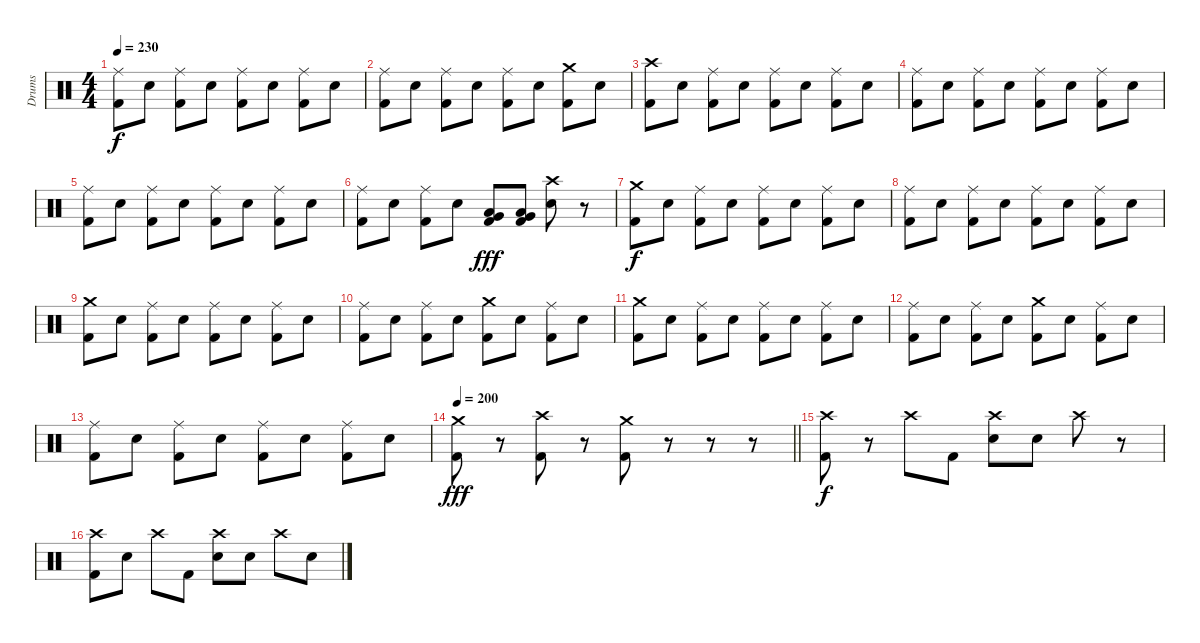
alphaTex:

\track ("Drums" "Drums") {instrument percussion}
\staff {score}
\articulation defaults
\ts (4 4)
\tempo 230
\clef neutral
\ks c
("Ride (middle)" "Kick (hit) 2").8{dy f} "Electric Snare (hit)".8 ("Ride (middle)" "Kick (hit) 2").8 "Electric Snare (hit)".8 ("Ride (middle)" "Kick (hit) 2").8 "Electric Snare (hit)".8 ("Ride (middle)" "Kick (hit) 2").8 "Electric Snare (hit)".8 |
("Ride (middle)" "Kick (hit) 2").8 "Electric Snare (hit)".8 ("Ride (middle)" "Kick (hit) 2").8 "Electric Snare (hit)".8 ("Ride (middle)" "Kick (hit) 2").8 "Electric Snare (hit)".8 ("Crash medium (hit)" "Kick (hit) 2").8 "Electric Snare (hit)".8 |
("Crash high (hit)" "Kick (hit) 2").8 "Electric Snare (hit)".8 ("Ride (middle)" "Kick (hit) 2").8 "Electric Snare (hit)".8 ("Ride (middle)" "Kick (hit) 2").8 "Electric Snare (hit)".8 ("Ride (middle)" "Kick (hit) 2").8 "Electric Snare (hit)".8 |
("Ride (middle)" "Kick (hit) 2").8 "Electric Snare (hit)".8 ("Ride (middle)" "Kick (hit) 2").8 "Electric Snare (hit)".8 ("Ride (middle)" "Kick (hit) 2").8 "Electric Snare (hit)".8 ("Ride (middle)" "Kick (hit) 2").8 "Electric Snare (hit)".8 |
("Ride (middle)" "Kick (hit) 2").8 "Electric Snare (hit)".8 ("Ride (middle)" "Kick (hit) 2").8 "Electric Snare (hit)".8 ("Ride (middle)" "Kick (hit) 2").8 "Electric Snare (hit)".8 ("Ride (middle)" "Kick (hit) 2").8 "Electric Snare (hit)".8 |
("Ride (middle)" "Kick (hit) 2").8 "Electric Snare (hit)".8 ("Ride (middle)" "Kick (hit) 2").8 "Electric Snare (hit)".8 ("Low Floor Tom (hit)" "Very Low Tom (hit)" "Kick (hit) 2").8{dy fff} ("Low Floor Tom (hit)" "Very Low Tom (hit)" "Kick (hit) 2").8 ("Crash high (hit)" "Electric Snare (hit)").8 r.8 |
("Crash medium (hit)" "Kick (hit) 2").8{dy f} "Electric Snare (hit)".8 ("Ride (middle)" "Kick (hit) 2").8 "Electric Snare (hit)".8 ("Ride (middle)" "Kick (hit) 2").8 "Electric Snare (hit)".8 ("Ride (middle)" "Kick (hit) 2").8 "Electric Snare (hit)".8 |
("Ride (middle)" "Kick (hit) 2").8 "Electric Snare (hit)".8 ("Ride (middle)" "Kick (hit) 2").8 "Electric Snare (hit)".8 ("Ride (middle)" "Kick (hit) 2").8 "Electric Snare (hit)".8 ("Ride (middle)" "Kick (hit) 2").8 "Electric Snare (hit)".8 |
("Crash medium (hit)" "Kick (hit) 2").8 "Electric Snare (hit)".8 ("Ride (middle)" "Kick (hit) 2").8 "Electric Snare (hit)".8 ("Ride (middle)" "Kick (hit) 2").8 "Electric Snare (hit)".8 ("Ride (middle)" "Kick (hit) 2").8 "Electric Snare (hit)".8 |
("Ride (middle)" "Kick (hit) 2").8 "Electric Snare (hit)".8 ("Ride (middle)" "Kick (hit) 2").8 "Electric Snare (hit)".8 ("Crash medium (hit)" "Kick (hit) 2").8 "Electric Snare (hit)".8 ("Ride (middle)" "Kick (hit) 2").8 "Electric Snare (hit)".8 |
("Crash medium (hit)" "Kick (hit) 2").8 "Electric Snare (hit)".8 ("Ride (middle)" "Kick (hit) 2").8 "Electric Snare (hit)".8 ("Ride (middle)" "Kick (hit) 2").8 "Electric Snare (hit)".8 ("Ride (middle)" "Kick (hit) 2").8 "Electric Snare (hit)".8 |
("Ride (middle)" "Kick (hit) 2").8 "Electric Snare (hit)".8 ("Ride (middle)" "Kick (hit) 2").8 "Electric Snare (hit)".8 ("Crash medium (hit)" "Kick (hit) 2").8 "Electric Snare (hit)".8 ("Ride (middle)" "Kick (hit) 2").8 "Electric Snare (hit)".8 |
("Ride (middle)" "Kick (hit) 2").8 "Electric Snare (hit)".8 ("Ride (middle)" "Kick (hit) 2").8 "Electric Snare (hit)".8 ("Ride (middle)" "Kick (hit) 2").8 "Electric Snare (hit)".8 ("Ride (middle)" "Kick (hit) 2").8 "Electric Snare (hit)".8 |
\tempo 200
\barLineRight lightlight
("Crash medium (hit)" "Kick (hit) 2").8{dy fff} r.8 ("Crash high (hit)" "Kick (hit) 2").8 r.8 ("Crash medium (hit)" "Kick (hit) 2").8 r.8 r.8 r.8 |
\section ("" "")
("Crash high (hit)" "Kick (hit) 2").8{dy f} r.8 "Crash high (hit)".8 "Kick (hit) 2".8 ("Crash high (hit)" "Electric Snare (hit)").8 "Electric Snare (hit)".8 "Crash high (hit)".8 r.8 |
("Crash high (hit)" "Kick (hit) 2").8 "Electric Snare (hit)".8 "Crash high (hit)".8 "Kick (hit) 2".8 ("Crash high (hit)" "Electric Snare (hit)").8 "Electric Snare (hit)".8 "Crash high (hit)".8 "Electric Snare (hit)".8
